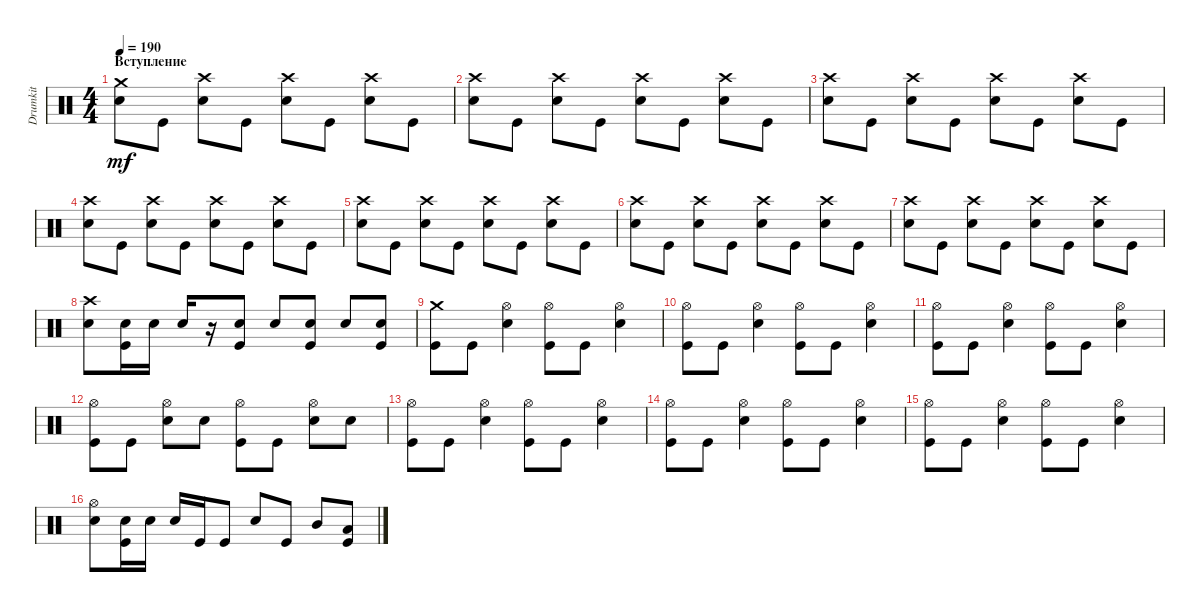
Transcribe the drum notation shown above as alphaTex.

\track ("Drumkit" "Drumkit") {instrument percussion}
\staff {score}
\articulation defaults
\ts (4 4)
\section ("" "Вступление")
\tempo 190
\clef neutral
\ks c
("Snare (hit) 2" "Crash medium (hit)").8{dy mf} "Kick (hit)".8 ("Snare (hit) 2" "Crash high (hit)").8 "Kick (hit)".8 ("Snare (hit) 2" "Crash high (hit)").8 "Kick (hit)".8 ("Snare (hit) 2" "Crash high (hit)").8 "Kick (hit)".8 |
("Snare (hit) 2" "Crash high (hit)").8 "Kick (hit)".8 ("Snare (hit) 2" "Crash high (hit)").8 "Kick (hit)".8 ("Snare (hit) 2" "Crash high (hit)").8 "Kick (hit)".8 ("Snare (hit) 2" "Crash high (hit)").8 "Kick (hit)".8 |
("Snare (hit) 2" "Crash high (hit)").8 "Kick (hit)".8 ("Snare (hit) 2" "Crash high (hit)").8 "Kick (hit)".8 ("Snare (hit) 2" "Crash high (hit)").8 "Kick (hit)".8 ("Snare (hit) 2" "Crash high (hit)").8 "Kick (hit)".8 |
("Snare (hit) 2" "Crash high (hit)").8 "Kick (hit)".8 ("Snare (hit) 2" "Crash high (hit)").8 "Kick (hit)".8 ("Snare (hit) 2" "Crash high (hit)").8 "Kick (hit)".8 ("Snare (hit) 2" "Crash high (hit)").8 "Kick (hit)".8 |
("Snare (hit) 2" "Crash high (hit)").8 "Kick (hit)".8 ("Snare (hit) 2" "Crash high (hit)").8 "Kick (hit)".8 ("Snare (hit) 2" "Crash high (hit)").8 "Kick (hit)".8 ("Snare (hit) 2" "Crash high (hit)").8 "Kick (hit)".8 |
("Snare (hit) 2" "Crash high (hit)").8 "Kick (hit)".8 ("Snare (hit) 2" "Crash high (hit)").8 "Kick (hit)".8 ("Snare (hit) 2" "Crash high (hit)").8 "Kick (hit)".8 ("Snare (hit) 2" "Crash high (hit)").8 "Kick (hit)".8 |
("Snare (hit) 2" "Crash high (hit)").8 "Kick (hit)".8 ("Snare (hit) 2" "Crash high (hit)").8 "Kick (hit)".8 ("Snare (hit) 2" "Crash high (hit)").8 "Kick (hit)".8 ("Snare (hit) 2" "Crash high (hit)").8 "Kick (hit)".8 |
("Snare (hit) 2" "Crash high (hit)").8 ("Kick (hit)" "Snare (hit) 2").16 "Snare (hit) 2".16 "Snare (hit) 2".16 r.16 ("Kick (hit)" "Snare (hit) 2").8 "Snare (hit) 2".8 ("Kick (hit)" "Snare (hit) 2").8 "Snare (hit) 2".8 ("Kick (hit)" "Snare (hit) 2").8 |
("Kick (hit)" "Crash medium (hit)").8 "Kick (hit)".8 ("Snare (hit) 2" "Hi-Hat (open)").4 ("Kick (hit)" "Hi-Hat (open)").8 "Kick (hit)".8 ("Snare (hit) 2" "Hi-Hat (open)").4 |
("Kick (hit)" "Hi-Hat (open)").8 "Kick (hit)".8 ("Snare (hit) 2" "Hi-Hat (open)").4 ("Kick (hit)" "Hi-Hat (open)").8 "Kick (hit)".8 ("Snare (hit) 2" "Hi-Hat (open)").4 |
("Kick (hit)" "Hi-Hat (open)").8 "Kick (hit)".8 ("Snare (hit) 2" "Hi-Hat (open)").4 ("Kick (hit)" "Hi-Hat (open)").8 "Kick (hit)".8 ("Snare (hit) 2" "Hi-Hat (open)").4 |
("Kick (hit)" "Hi-Hat (open)").8 "Kick (hit)".8 ("Snare (hit) 2" "Hi-Hat (open)").8 "Snare (hit) 2".8 ("Kick (hit)" "Hi-Hat (open)").8 "Kick (hit)".8 ("Snare (hit) 2" "Hi-Hat (open)").8 "Snare (hit) 2".8 |
("Kick (hit)" "Hi-Hat (open)").8 "Kick (hit)".8 ("Snare (hit) 2" "Hi-Hat (open)").4 ("Kick (hit)" "Hi-Hat (open)").8 "Kick (hit)".8 ("Snare (hit) 2" "Hi-Hat (open)").4 |
("Kick (hit)" "Hi-Hat (open)").8 "Kick (hit)".8 ("Snare (hit) 2" "Hi-Hat (open)").4 ("Kick (hit)" "Hi-Hat (open)").8 "Kick (hit)".8 ("Snare (hit) 2" "Hi-Hat (open)").4 |
("Kick (hit)" "Hi-Hat (open)").8 "Kick (hit)".8 ("Snare (hit) 2" "Hi-Hat (open)").4 ("Kick (hit)" "Hi-Hat (open)").8 "Kick (hit)".8 ("Snare (hit) 2" "Hi-Hat (open)").4 |
("Snare (hit) 2" "Hi-Hat (open)").8 ("Kick (hit)" "Snare (hit) 2").16 "Snare (hit) 2".16 "Snare (hit) 2".16 "Kick (hit)".16 "Kick (hit)".8 "Snare (hit) 2".8 "Kick (hit)".8 "Mid Tom (hit)".8 ("Kick (hit)" "Low Tom (hit)").8
